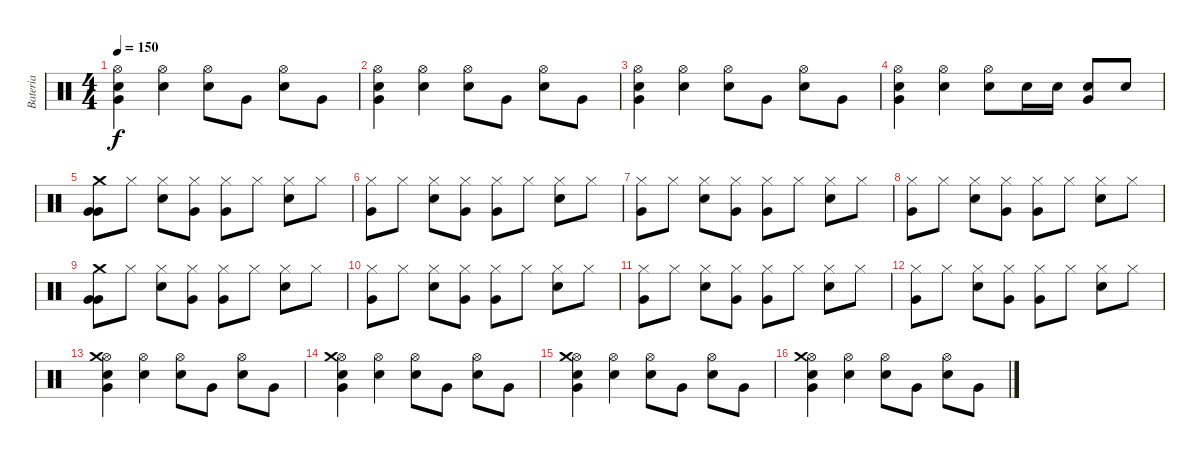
\track ("Bateria" "Bateria") {instrument percussion}
\staff {score}
\articulation defaults
\ts (4 4)
\tempo 150
\clef neutral
\ks c
("Hi-Hat (open)" "Very Low Tom (hit)" "Electric Snare (hit)").4{dy f} ("Hi-Hat (open)" "Electric Snare (hit)").4 ("Hi-Hat (open)" "Electric Snare (hit)").8 "Very Low Tom (hit)".8 ("Hi-Hat (open)" "Electric Snare (hit)").8 "Very Low Tom (hit)".8 |
("Hi-Hat (open)" "Very Low Tom (hit)" "Electric Snare (hit)").4 ("Hi-Hat (open)" "Electric Snare (hit)").4 ("Hi-Hat (open)" "Electric Snare (hit)").8 "Very Low Tom (hit)".8 ("Hi-Hat (open)" "Electric Snare (hit)").8 "Very Low Tom (hit)".8 |
("Hi-Hat (open)" "Very Low Tom (hit)" "Electric Snare (hit)").4 ("Hi-Hat (open)" "Electric Snare (hit)").4 ("Hi-Hat (open)" "Electric Snare (hit)").8 "Very Low Tom (hit)".8 ("Hi-Hat (open)" "Electric Snare (hit)").8 "Very Low Tom (hit)".8 |
("Hi-Hat (open)" "Very Low Tom (hit)" "Electric Snare (hit)").4 ("Hi-Hat (open)" "Electric Snare (hit)").4 ("Hi-Hat (open)" "Electric Snare (hit)").8 "Electric Snare (hit)".16 "Electric Snare (hit)".16 ("Very Low Tom (hit)" "Electric Snare (hit)").8 "Electric Snare (hit)".8 |
("Very Low Tom (hit)" "Very Low Tom (hit)" "Crash medium (hit)").8 "Hi-Hat (closed)".8 ("Hi-Hat (closed)" "Electric Snare (hit)").8 ("Hi-Hat (closed)" "Very Low Tom (hit)").8 ("Hi-Hat (closed)" "Very Low Tom (hit)").8 "Hi-Hat (closed)".8 ("Hi-Hat (closed)" "Electric Snare (hit)").8 "Hi-Hat (closed)".8 |
("Hi-Hat (closed)" "Very Low Tom (hit)").8 "Hi-Hat (closed)".8 ("Hi-Hat (closed)" "Electric Snare (hit)").8 ("Hi-Hat (closed)" "Very Low Tom (hit)").8 ("Hi-Hat (closed)" "Very Low Tom (hit)").8 "Hi-Hat (closed)".8 ("Hi-Hat (closed)" "Electric Snare (hit)").8 "Hi-Hat (closed)".8 |
("Hi-Hat (closed)" "Very Low Tom (hit)").8 "Hi-Hat (closed)".8 ("Hi-Hat (closed)" "Electric Snare (hit)").8 ("Hi-Hat (closed)" "Very Low Tom (hit)").8 ("Hi-Hat (closed)" "Very Low Tom (hit)").8 "Hi-Hat (closed)".8 ("Hi-Hat (closed)" "Electric Snare (hit)").8 "Hi-Hat (closed)".8 |
("Hi-Hat (closed)" "Very Low Tom (hit)").8 "Hi-Hat (closed)".8 ("Hi-Hat (closed)" "Electric Snare (hit)").8 ("Hi-Hat (closed)" "Very Low Tom (hit)").8 ("Hi-Hat (closed)" "Very Low Tom (hit)").8 "Hi-Hat (closed)".8 ("Hi-Hat (closed)" "Electric Snare (hit)").8 "Hi-Hat (closed)".8 |
("Very Low Tom (hit)" "Very Low Tom (hit)" "Crash medium (hit)").8 "Hi-Hat (closed)".8 ("Hi-Hat (closed)" "Electric Snare (hit)").8 ("Hi-Hat (closed)" "Very Low Tom (hit)").8 ("Hi-Hat (closed)" "Very Low Tom (hit)").8 "Hi-Hat (closed)".8 ("Hi-Hat (closed)" "Electric Snare (hit)").8 "Hi-Hat (closed)".8 |
("Hi-Hat (closed)" "Very Low Tom (hit)").8 "Hi-Hat (closed)".8 ("Hi-Hat (closed)" "Electric Snare (hit)").8 ("Hi-Hat (closed)" "Very Low Tom (hit)").8 ("Hi-Hat (closed)" "Very Low Tom (hit)").8 "Hi-Hat (closed)".8 ("Hi-Hat (closed)" "Electric Snare (hit)").8 "Hi-Hat (closed)".8 |
("Hi-Hat (closed)" "Very Low Tom (hit)").8 "Hi-Hat (closed)".8 ("Hi-Hat (closed)" "Electric Snare (hit)").8 ("Hi-Hat (closed)" "Very Low Tom (hit)").8 ("Hi-Hat (closed)" "Very Low Tom (hit)").8 "Hi-Hat (closed)".8 ("Hi-Hat (closed)" "Electric Snare (hit)").8 "Hi-Hat (closed)".8 |
("Hi-Hat (closed)" "Very Low Tom (hit)").8 "Hi-Hat (closed)".8 ("Hi-Hat (closed)" "Electric Snare (hit)").8 ("Hi-Hat (closed)" "Very Low Tom (hit)").8 ("Hi-Hat (closed)" "Very Low Tom (hit)").8 "Hi-Hat (closed)".8 ("Hi-Hat (closed)" "Electric Snare (hit)").8 "Hi-Hat (closed)".8 |
("Hi-Hat (open)" "Very Low Tom (hit)" "Electric Snare (hit)" "Crash medium (hit)").4 ("Hi-Hat (open)" "Electric Snare (hit)").4 ("Hi-Hat (open)" "Electric Snare (hit)").8 "Very Low Tom (hit)".8 ("Hi-Hat (open)" "Electric Snare (hit)").8 "Very Low Tom (hit)".8 |
("Hi-Hat (open)" "Very Low Tom (hit)" "Electric Snare (hit)" "Crash medium (hit)").4 ("Hi-Hat (open)" "Electric Snare (hit)").4 ("Hi-Hat (open)" "Electric Snare (hit)").8 "Very Low Tom (hit)".8 ("Hi-Hat (open)" "Electric Snare (hit)").8 "Very Low Tom (hit)".8 |
("Hi-Hat (open)" "Very Low Tom (hit)" "Electric Snare (hit)" "Crash medium (hit)").4 ("Hi-Hat (open)" "Electric Snare (hit)").4 ("Hi-Hat (open)" "Electric Snare (hit)").8 "Very Low Tom (hit)".8 ("Hi-Hat (open)" "Electric Snare (hit)").8 "Very Low Tom (hit)".8 |
("Hi-Hat (open)" "Very Low Tom (hit)" "Electric Snare (hit)" "Crash medium (hit)").4 ("Hi-Hat (open)" "Electric Snare (hit)").4 ("Hi-Hat (open)" "Electric Snare (hit)").8 "Very Low Tom (hit)".8 ("Hi-Hat (open)" "Electric Snare (hit)").8 "Very Low Tom (hit)".8
